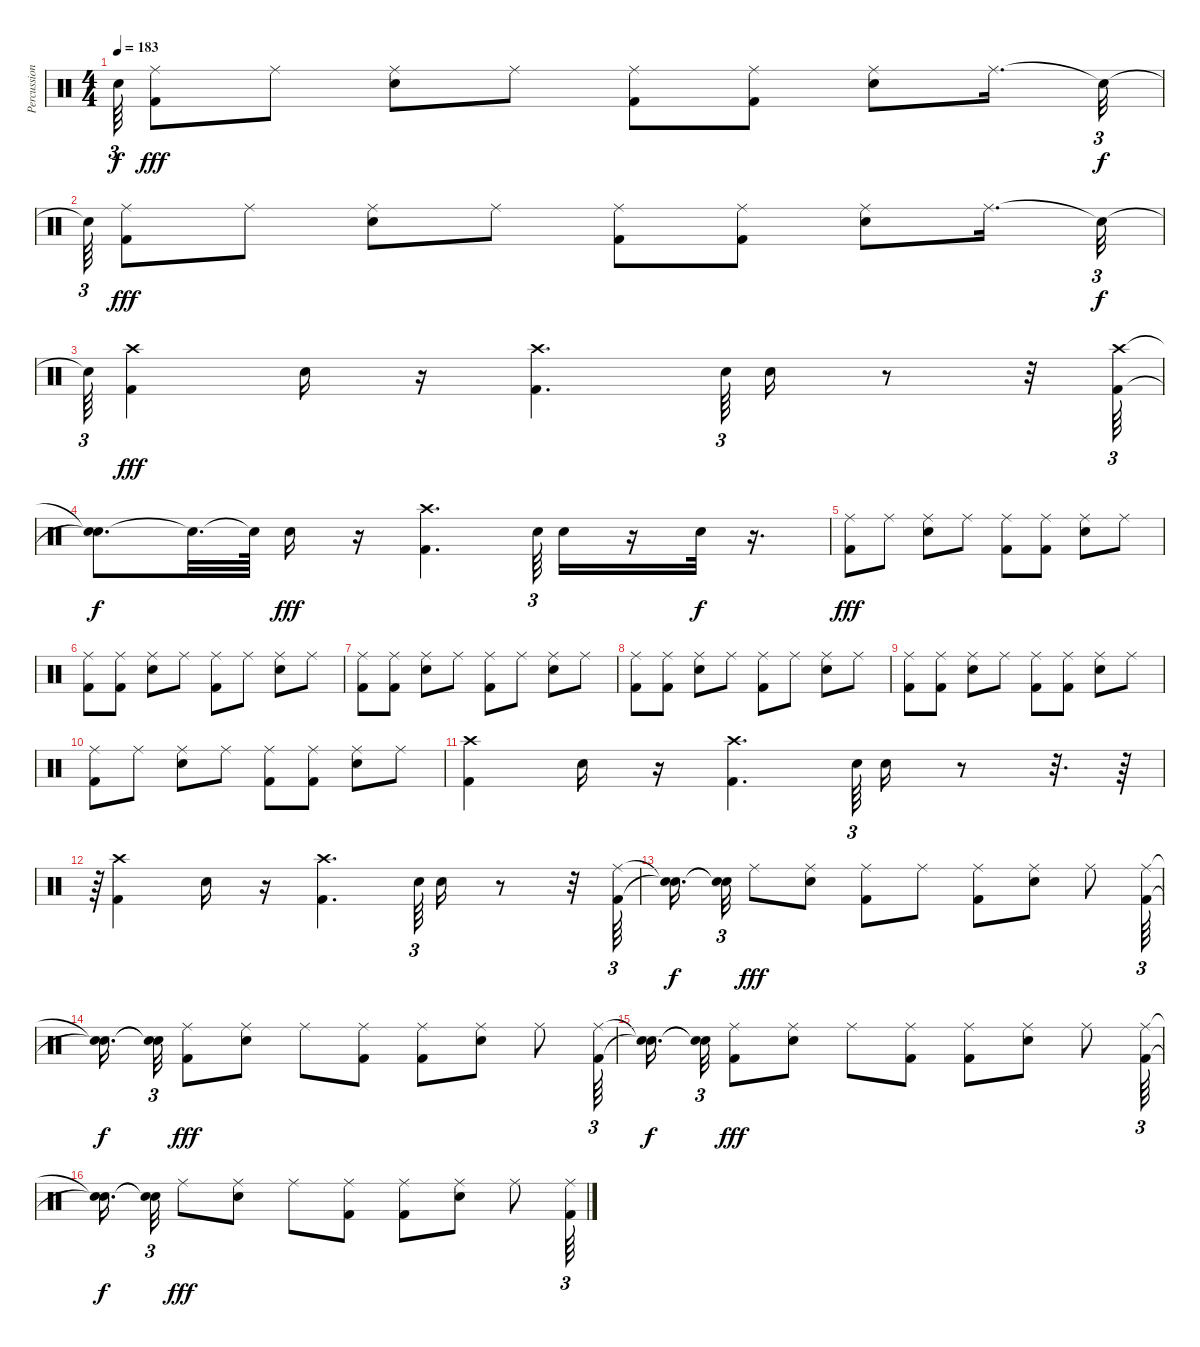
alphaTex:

\track ("Percussioni" "Percussion") {instrument percussion}
\staff {score}
\articulation defaults
\ts (4 4)
\tempo 183
\clef neutral
\ks c "Snare (hit)"{t}.64{tu (3 2) dy f}
("Ride (middle)" "Kick (hit) 2").8{dy fff} "Ride (middle)".8 ("Ride (middle)" "Snare (hit) 2").8 "Ride (middle)".8 ("Ride (middle)" "Kick (hit) 2").8 ("Ride (middle)" "Kick (hit) 2").8 ("Ride (middle)" "Snare (hit) 2").8 "Ride (middle)".16{d} "Snare (hit)"{t}.32{tu (3 2) dy f} |
"Snare (hit)"{t}.64{tu (3 2)} ("Ride (middle)" "Kick (hit) 2").8{dy fff} "Ride (middle)".8 ("Ride (middle)" "Snare (hit) 2").8 "Ride (middle)".8 ("Ride (middle)" "Kick (hit) 2").8 ("Ride (middle)" "Kick (hit) 2").8 ("Ride (middle)" "Snare (hit) 2").8 "Ride (middle)".16{d} "Snare (hit)"{t}.32{tu (3 2) dy f} |
"Snare (hit)"{t}.64{tu (3 2)} ("Crash high (hit)" "Kick (hit) 2").4{dy fff} "Snare (hit) 2".16 r.16 ("Crash high (hit)" "Kick (hit) 2").4{d} "Snare (hit) 2".64{tu (3 2)} "Snare (hit) 2".16 r.8 r.32 ("Crash high (hit)" "Kick (hit) 2").64{tu (3 2)} |
("Snare (hit)"{t} "Snare (hit)"{t}).8{d dy f} "Snare (hit)"{t}.32{d} "Snare (hit)"{t}.64 "Snare (hit) 2".16{dy fff} r.16 ("Crash high (hit)" "Kick (hit) 2").4{d} "Snare (hit) 2".64{tu (3 2)} "Snare (hit) 2".16 r.16 "Snare (hit) 2".32{dy f} r.16{d} |
("Ride (middle)" "Kick (hit) 2").8{dy fff} "Ride (middle)".8 ("Ride (middle)" "Snare (hit) 2").8 "Ride (middle)".8 ("Ride (middle)" "Kick (hit) 2").8 ("Ride (middle)" "Kick (hit) 2").8 ("Ride (middle)" "Snare (hit) 2").8 "Ride (middle)".8 |
("Ride (middle)" "Kick (hit) 2").8 ("Ride (middle)" "Kick (hit) 2").8 ("Ride (middle)" "Snare (hit) 2").8 "Ride (middle)".8 ("Ride (middle)" "Kick (hit) 2").8 "Ride (middle)".8 ("Ride (middle)" "Snare (hit) 2").8 "Ride (middle)".8 |
("Ride (middle)" "Kick (hit) 2").8 ("Ride (middle)" "Kick (hit) 2").8 ("Ride (middle)" "Snare (hit) 2").8 "Ride (middle)".8 ("Ride (middle)" "Kick (hit) 2").8 "Ride (middle)".8 ("Ride (middle)" "Snare (hit) 2").8 "Ride (middle)".8 |
("Ride (middle)" "Kick (hit) 2").8 ("Ride (middle)" "Kick (hit) 2").8 ("Ride (middle)" "Snare (hit) 2").8 "Ride (middle)".8 ("Ride (middle)" "Kick (hit) 2").8 "Ride (middle)".8 ("Ride (middle)" "Snare (hit) 2").8 "Ride (middle)".8 |
("Ride (middle)" "Kick (hit) 2").8 ("Ride (middle)" "Kick (hit) 2").8 ("Ride (middle)" "Snare (hit) 2").8 "Ride (middle)".8 ("Ride (middle)" "Kick (hit) 2").8 ("Ride (middle)" "Kick (hit) 2").8 ("Ride (middle)" "Snare (hit) 2").8 "Ride (middle)".8 |
("Ride (middle)" "Kick (hit) 2").8 "Ride (middle)".8 ("Ride (middle)" "Snare (hit) 2").8 "Ride (middle)".8 ("Ride (middle)" "Kick (hit) 2").8 ("Ride (middle)" "Kick (hit) 2").8 ("Ride (middle)" "Snare (hit) 2").8 "Ride (middle)".8 |
("Crash high (hit)" "Kick (hit) 2").4 "Snare (hit) 2".16 r.16 ("Crash high (hit)" "Kick (hit) 2").4{d} "Snare (hit) 2".64{tu (3 2)} "Snare (hit) 2".16 r.8 r.32{d} r.64 |
r.64{tu (3 2)} ("Crash high (hit)" "Kick (hit) 2").4 "Snare (hit) 2".16 r.16 ("Crash high (hit)" "Kick (hit) 2").4{d} "Snare (hit) 2".64{tu (3 2)} "Snare (hit) 2".16 r.8 r.32 ("Ride (middle)" "Kick (hit) 2").64{tu (3 2)} |
("Snare (hit)"{t} "Snare (hit)"{t}).16{d dy f beam splitsecondary} ("Snare (hit)"{t} "Snare (hit)"{t}).32{tu (3 2)} "Ride (middle)".8{dy fff} ("Ride (middle)" "Snare (hit) 2").8 ("Ride (middle)" "Kick (hit) 2").8 "Ride (middle)".8 ("Ride (middle)" "Kick (hit) 2").8 ("Ride (middle)" "Snare (hit) 2").8 "Ride (middle)".8 ("Ride (middle)" "Kick (hit) 2").64{tu (3 2)} |
("Snare (hit)"{t} "Snare (hit)"{t}).16{d dy f beam splitsecondary} ("Snare (hit)"{t} "Snare (hit)"{t}).32{tu (3 2)} ("Ride (middle)" "Kick (hit) 2").8{dy fff} ("Ride (middle)" "Snare (hit) 2").8 "Ride (middle)".8 ("Ride (middle)" "Kick (hit) 2").8 ("Ride (middle)" "Kick (hit) 2").8 ("Ride (middle)" "Snare (hit) 2").8 "Ride (middle)".8 ("Ride (middle)" "Kick (hit) 2").64{tu (3 2)} |
("Snare (hit)"{t} "Snare (hit)"{t}).16{d dy f beam splitsecondary} ("Snare (hit)"{t} "Snare (hit)"{t}).32{tu (3 2)} ("Ride (middle)" "Kick (hit) 2").8{dy fff} ("Ride (middle)" "Snare (hit) 2").8 "Ride (middle)".8 ("Ride (middle)" "Kick (hit) 2").8 ("Ride (middle)" "Kick (hit) 2").8 ("Ride (middle)" "Snare (hit) 2").8 "Ride (middle)".8 ("Ride (middle)" "Kick (hit) 2").64{tu (3 2)} |
("Snare (hit)"{t} "Snare (hit)"{t}).16{d dy f beam splitsecondary} ("Snare (hit)"{t} "Snare (hit)"{t}).32{tu (3 2)} "Ride (middle)".8{dy fff} ("Ride (middle)" "Snare (hit) 2").8 "Ride (middle)".8 ("Ride (middle)" "Kick (hit) 2").8 ("Ride (middle)" "Kick (hit) 2").8 ("Ride (middle)" "Snare (hit) 2").8 "Ride (middle)".8 ("Ride (middle)" "Kick (hit) 2").64{tu (3 2)}
